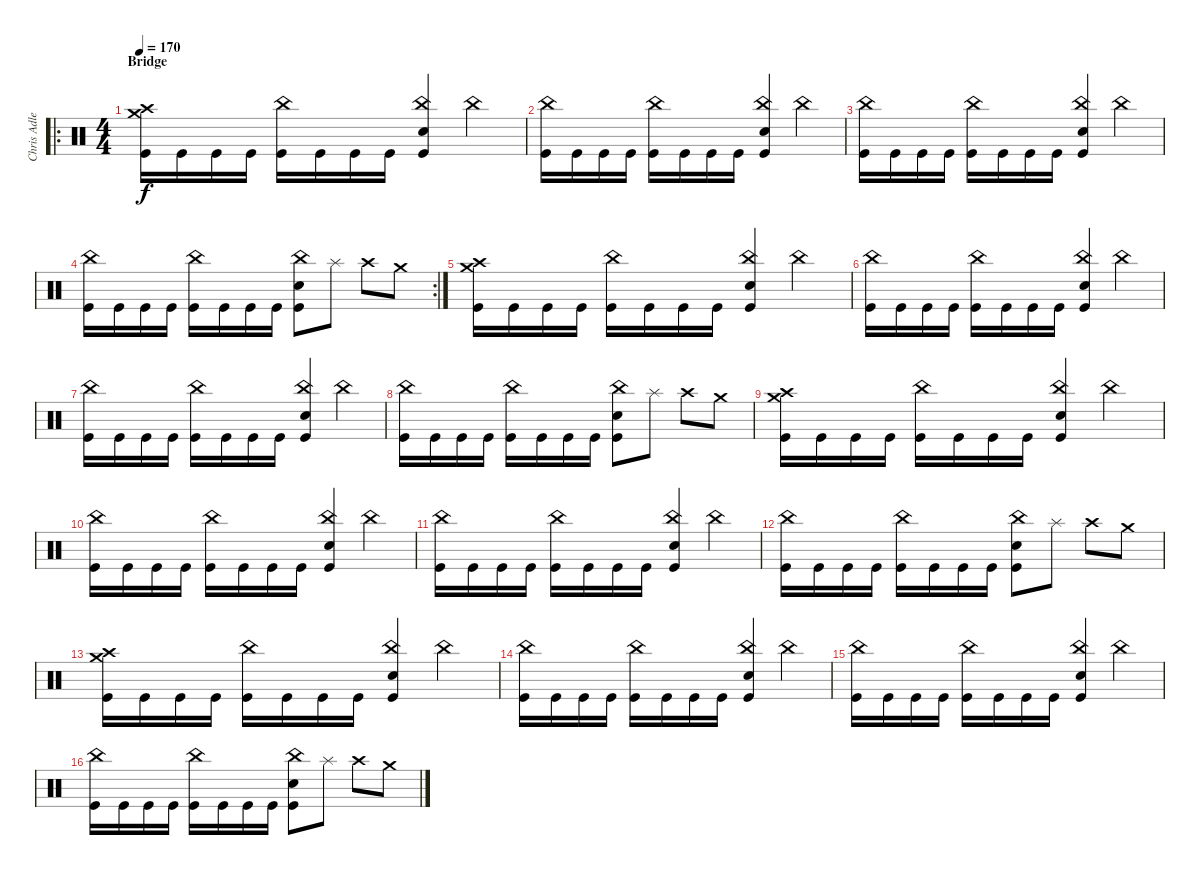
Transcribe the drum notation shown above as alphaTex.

\track ("Chris Adler" "Chris Adle") {instrument percussion}
\staff {score}
\articulation defaults
\ro
\ts (4 4)
\section ("" "Bridge")
\tempo 170
\clef neutral
\ks c
("Crash medium (hit)" "Crash high (hit)" "Kick (hit)").16{dy f} "Kick (hit)".16 "Kick (hit)".16 "Kick (hit)".16 ("Kick (hit)" "China (hit)").16 "Kick (hit)".16 "Kick (hit)".16 "Kick (hit)".16 ("Kick (hit)" "Snare (hit) 2" "China (hit)").4 "China (hit)".4 |
("China (hit)" "Kick (hit)").16 "Kick (hit)".16 "Kick (hit)".16 "Kick (hit)".16 ("Kick (hit)" "China (hit)").16 "Kick (hit)".16 "Kick (hit)".16 "Kick (hit)".16 ("Kick (hit)" "Snare (hit) 2" "China (hit)").4 "China (hit)".4 |
("China (hit)" "Kick (hit)").16 "Kick (hit)".16 "Kick (hit)".16 "Kick (hit)".16 ("Kick (hit)" "China (hit)").16 "Kick (hit)".16 "Kick (hit)".16 "Kick (hit)".16 ("Kick (hit)" "Snare (hit) 2" "China (hit)").4 "China (hit)".4 |
\rc 2
("China (hit)" "Kick (hit)").16 "Kick (hit)".16 "Kick (hit)".16 "Kick (hit)".16 ("Kick (hit)" "China (hit)").16 "Kick (hit)".16 "Kick (hit)".16 "Kick (hit)".16 ("Kick (hit)" "Snare (hit) 2" "China (hit)").8 "Splash (hit)".8 "Crash high (hit)".8 "Crash medium (hit)".8 |
("Crash medium (hit)" "Crash high (hit)" "Kick (hit)").16 "Kick (hit)".16 "Kick (hit)".16 "Kick (hit)".16 ("Kick (hit)" "China (hit)").16 "Kick (hit)".16 "Kick (hit)".16 "Kick (hit)".16 ("Kick (hit)" "Snare (hit) 2" "China (hit)").4 "China (hit)".4 |
("China (hit)" "Kick (hit)").16 "Kick (hit)".16 "Kick (hit)".16 "Kick (hit)".16 ("Kick (hit)" "China (hit)").16 "Kick (hit)".16 "Kick (hit)".16 "Kick (hit)".16 ("Kick (hit)" "Snare (hit) 2" "China (hit)").4 "China (hit)".4 |
("China (hit)" "Kick (hit)").16 "Kick (hit)".16 "Kick (hit)".16 "Kick (hit)".16 ("Kick (hit)" "China (hit)").16 "Kick (hit)".16 "Kick (hit)".16 "Kick (hit)".16 ("Kick (hit)" "Snare (hit) 2" "China (hit)").4 "China (hit)".4 |
("China (hit)" "Kick (hit)").16 "Kick (hit)".16 "Kick (hit)".16 "Kick (hit)".16 ("Kick (hit)" "China (hit)").16 "Kick (hit)".16 "Kick (hit)".16 "Kick (hit)".16 ("Kick (hit)" "Snare (hit) 2" "China (hit)").8 "Splash (hit)".8 "Crash high (hit)".8 "Crash medium (hit)".8 |
("Crash medium (hit)" "Crash high (hit)" "Kick (hit)").16 "Kick (hit)".16 "Kick (hit)".16 "Kick (hit)".16 ("Kick (hit)" "China (hit)").16 "Kick (hit)".16 "Kick (hit)".16 "Kick (hit)".16 ("Kick (hit)" "Snare (hit) 2" "China (hit)").4 "China (hit)".4 |
("China (hit)" "Kick (hit)").16 "Kick (hit)".16 "Kick (hit)".16 "Kick (hit)".16 ("Kick (hit)" "China (hit)").16 "Kick (hit)".16 "Kick (hit)".16 "Kick (hit)".16 ("Kick (hit)" "Snare (hit) 2" "China (hit)").4 "China (hit)".4 |
("China (hit)" "Kick (hit)").16 "Kick (hit)".16 "Kick (hit)".16 "Kick (hit)".16 ("Kick (hit)" "China (hit)").16 "Kick (hit)".16 "Kick (hit)".16 "Kick (hit)".16 ("Kick (hit)" "Snare (hit) 2" "China (hit)").4 "China (hit)".4 |
("China (hit)" "Kick (hit)").16 "Kick (hit)".16 "Kick (hit)".16 "Kick (hit)".16 ("Kick (hit)" "China (hit)").16 "Kick (hit)".16 "Kick (hit)".16 "Kick (hit)".16 ("Kick (hit)" "Snare (hit) 2" "China (hit)").8 "Splash (hit)".8 "Crash high (hit)".8 "Crash medium (hit)".8 |
("Crash medium (hit)" "Crash high (hit)" "Kick (hit)").16 "Kick (hit)".16 "Kick (hit)".16 "Kick (hit)".16 ("Kick (hit)" "China (hit)").16 "Kick (hit)".16 "Kick (hit)".16 "Kick (hit)".16 ("Kick (hit)" "Snare (hit) 2" "China (hit)").4 "China (hit)".4 |
("China (hit)" "Kick (hit)").16 "Kick (hit)".16 "Kick (hit)".16 "Kick (hit)".16 ("Kick (hit)" "China (hit)").16 "Kick (hit)".16 "Kick (hit)".16 "Kick (hit)".16 ("Kick (hit)" "Snare (hit) 2" "China (hit)").4 "China (hit)".4 |
("China (hit)" "Kick (hit)").16 "Kick (hit)".16 "Kick (hit)".16 "Kick (hit)".16 ("Kick (hit)" "China (hit)").16 "Kick (hit)".16 "Kick (hit)".16 "Kick (hit)".16 ("Kick (hit)" "Snare (hit) 2" "China (hit)").4 "China (hit)".4 |
("China (hit)" "Kick (hit)").16 "Kick (hit)".16 "Kick (hit)".16 "Kick (hit)".16 ("Kick (hit)" "China (hit)").16 "Kick (hit)".16 "Kick (hit)".16 "Kick (hit)".16 ("Kick (hit)" "Snare (hit) 2" "China (hit)").8 "Splash (hit)".8 "Crash high (hit)".8 "Crash medium (hit)".8
